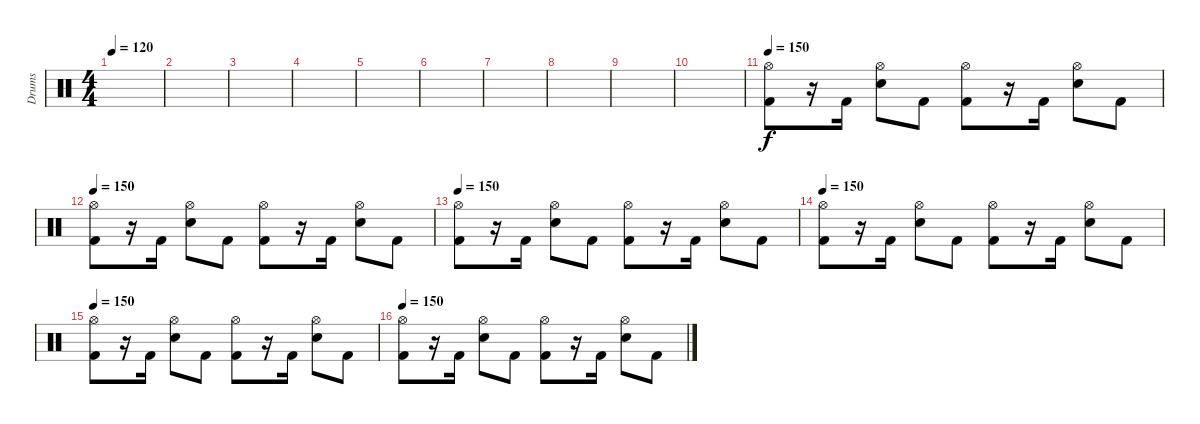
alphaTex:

\track ("Drums" "Drums") {instrument percussion}
\staff {score}
\articulation defaults
\ts (4 4)
\tempo 120
\clef neutral
\ks c
|
|
|
|
|
|
|
|
|
|
\tempo 150
("Kick (hit) 2" "Hi-Hat (open)").8 r.16 "Kick (hit) 2".16 ("Electric Snare (hit)" "Hi-Hat (open)").8 "Kick (hit) 2".8 ("Kick (hit) 2" "Hi-Hat (open)").8 r.16 "Kick (hit) 2".16 ("Electric Snare (hit)" "Hi-Hat (open)").8 "Kick (hit) 2".8 |
\tempo 150
("Kick (hit) 2" "Hi-Hat (open)").8 r.16 "Kick (hit) 2".16 ("Electric Snare (hit)" "Hi-Hat (open)").8 "Kick (hit) 2".8 ("Kick (hit) 2" "Hi-Hat (open)").8 r.16 "Kick (hit) 2".16 ("Electric Snare (hit)" "Hi-Hat (open)").8 "Kick (hit) 2".8 |
\tempo 150
("Kick (hit) 2" "Hi-Hat (open)").8 r.16 "Kick (hit) 2".16 ("Electric Snare (hit)" "Hi-Hat (open)").8 "Kick (hit) 2".8 ("Kick (hit) 2" "Hi-Hat (open)").8 r.16 "Kick (hit) 2".16 ("Electric Snare (hit)" "Hi-Hat (open)").8 "Kick (hit) 2".8 |
\tempo 150
("Kick (hit) 2" "Hi-Hat (open)").8 r.16 "Kick (hit) 2".16 ("Electric Snare (hit)" "Hi-Hat (open)").8 "Kick (hit) 2".8 ("Kick (hit) 2" "Hi-Hat (open)").8 r.16 "Kick (hit) 2".16 ("Electric Snare (hit)" "Hi-Hat (open)").8 "Kick (hit) 2".8 |
\tempo 150
("Kick (hit) 2" "Hi-Hat (open)").8 r.16 "Kick (hit) 2".16 ("Electric Snare (hit)" "Hi-Hat (open)").8 "Kick (hit) 2".8 ("Kick (hit) 2" "Hi-Hat (open)").8 r.16 "Kick (hit) 2".16 ("Electric Snare (hit)" "Hi-Hat (open)").8 "Kick (hit) 2".8 |
\tempo 150
("Kick (hit) 2" "Hi-Hat (open)").8 r.16 "Kick (hit) 2".16 ("Electric Snare (hit)" "Hi-Hat (open)").8 "Kick (hit) 2".8 ("Kick (hit) 2" "Hi-Hat (open)").8 r.16 "Kick (hit) 2".16 ("Electric Snare (hit)" "Hi-Hat (open)").8 "Kick (hit) 2".8
